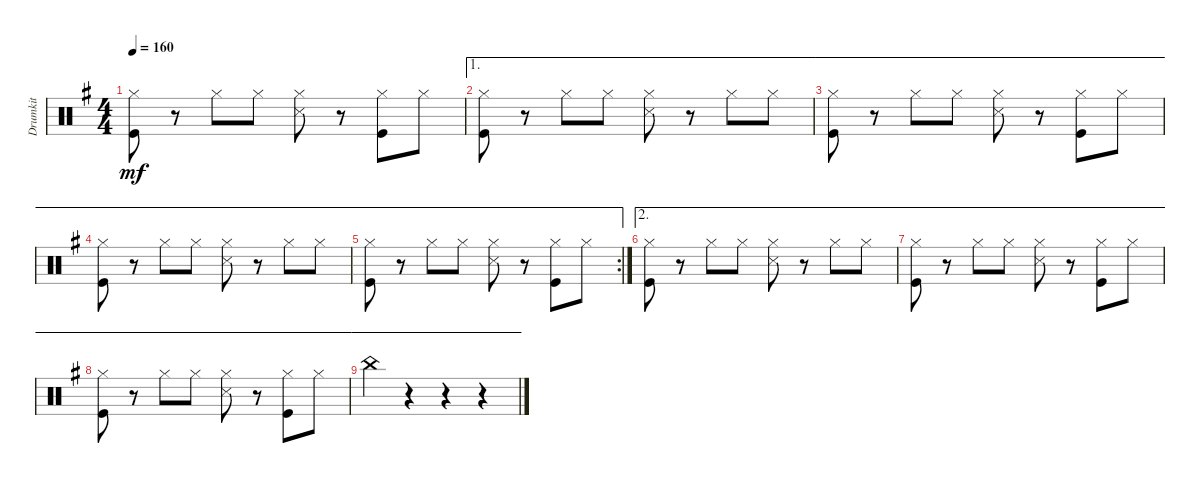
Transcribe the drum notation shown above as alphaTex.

\track ("Drumkit" "Drumkit") {instrument percussion}
\staff {score}
\articulation defaults
\ts (4 4)
\tempo 160
\clef neutral
\ks g
("Hi-Hat (closed)" "Kick (hit)").8{dy mf} r.8 "Hi-Hat (closed)".8 "Hi-Hat (closed)".8 ("Hi-Hat (closed)" "Snare (side stick) 3").8 r.8 ("Hi-Hat (closed)" "Kick (hit)").8 "Hi-Hat (closed)".8 |
\ae 1
("Hi-Hat (closed)" "Kick (hit)").8 r.8 "Hi-Hat (closed)".8 "Hi-Hat (closed)".8 ("Hi-Hat (closed)" "Snare (side stick) 3").8 r.8 "Hi-Hat (closed)".8 "Hi-Hat (closed)".8 |
\ae 1
("Hi-Hat (closed)" "Kick (hit)").8 r.8 "Hi-Hat (closed)".8 "Hi-Hat (closed)".8 ("Hi-Hat (closed)" "Snare (side stick) 3").8 r.8 ("Hi-Hat (closed)" "Kick (hit)").8 "Hi-Hat (closed)".8 |
\ae 1
("Hi-Hat (closed)" "Kick (hit)").8 r.8 "Hi-Hat (closed)".8 "Hi-Hat (closed)".8 ("Hi-Hat (closed)" "Snare (side stick) 3").8 r.8 "Hi-Hat (closed)".8 "Hi-Hat (closed)".8 |
\ae 1
\rc 2
("Hi-Hat (closed)" "Kick (hit)").8 r.8 "Hi-Hat (closed)".8 "Hi-Hat (closed)".8 ("Hi-Hat (closed)" "Snare (side stick) 3").8 r.8 ("Hi-Hat (closed)" "Kick (hit)").8 "Hi-Hat (closed)".8 |
\ae 2
("Hi-Hat (closed)" "Kick (hit)").8 r.8 "Hi-Hat (closed)".8 "Hi-Hat (closed)".8 ("Hi-Hat (closed)" "Snare (side stick) 3").8 r.8 "Hi-Hat (closed)".8 "Hi-Hat (closed)".8 |
\ae 2
("Hi-Hat (closed)" "Kick (hit)").8 r.8 "Hi-Hat (closed)".8 "Hi-Hat (closed)".8 ("Hi-Hat (closed)" "Snare (side stick) 3").8 r.8 ("Hi-Hat (closed)" "Kick (hit)").8 "Hi-Hat (closed)".8 |
\ae 2
("Hi-Hat (closed)" "Kick (hit)").8 r.8 "Hi-Hat (closed)".8 "Hi-Hat (closed)".8 ("Hi-Hat (closed)" "Snare (side stick) 3").8 r.8 ("Hi-Hat (closed)" "Kick (hit)").8 "Hi-Hat (closed)".8 |
\ae 2 "China (hit)".4
r.4 r.4 r.4
